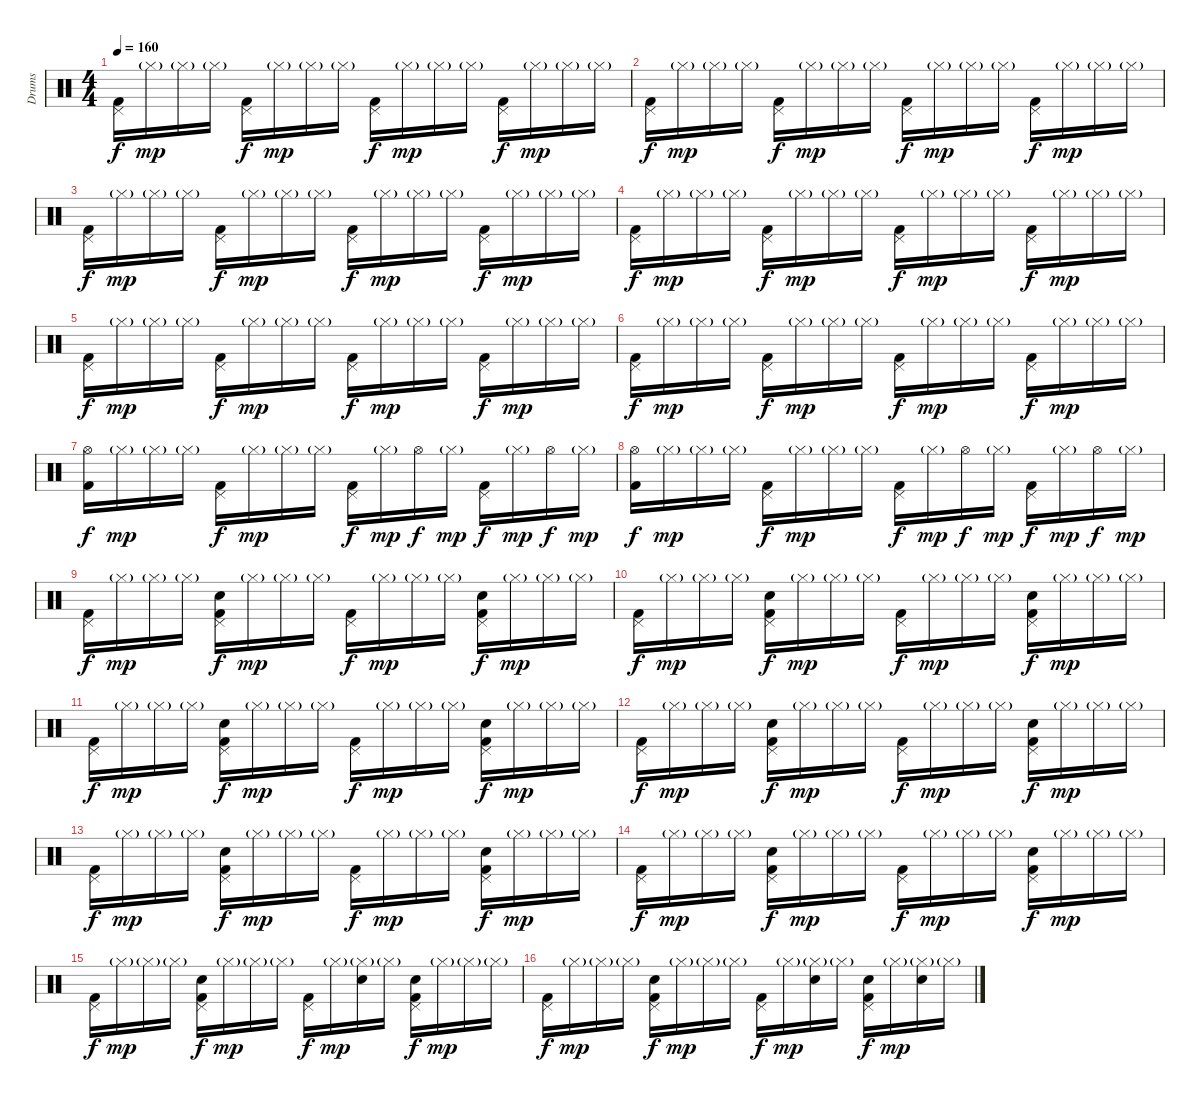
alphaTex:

\track ("Drums" "Drums") {instrument percussion}
\staff {score}
\articulation defaults
\ts (4 4)
\tempo 160
\clef neutral
\ks c
("Pedal Hi-Hat (hit)" "Kick (hit) 2").16{dy f volume 9} "Hi-Hat (closed)"{g}.16{dy mp} "Hi-Hat (closed)"{g}.16 "Hi-Hat (closed)"{g}.16 ("Pedal Hi-Hat (hit)" "Kick (hit) 2").16{dy f} "Hi-Hat (closed)"{g}.16{dy mp} "Hi-Hat (closed)"{g}.16 "Hi-Hat (closed)"{g}.16 ("Pedal Hi-Hat (hit)" "Kick (hit) 2").16{dy f} "Hi-Hat (closed)"{g}.16{dy mp} "Hi-Hat (closed)"{g}.16 "Hi-Hat (closed)"{g}.16 ("Pedal Hi-Hat (hit)" "Kick (hit) 2").16{dy f} "Hi-Hat (closed)"{g}.16{dy mp} "Hi-Hat (closed)"{g}.16 "Hi-Hat (closed)"{g}.16 |
("Pedal Hi-Hat (hit)" "Kick (hit) 2").16{dy f} "Hi-Hat (closed)"{g}.16{dy mp} "Hi-Hat (closed)"{g}.16 "Hi-Hat (closed)"{g}.16 ("Pedal Hi-Hat (hit)" "Kick (hit) 2").16{dy f} "Hi-Hat (closed)"{g}.16{dy mp} "Hi-Hat (closed)"{g}.16 "Hi-Hat (closed)"{g}.16 ("Pedal Hi-Hat (hit)" "Kick (hit) 2").16{dy f} "Hi-Hat (closed)"{g}.16{dy mp} "Hi-Hat (closed)"{g}.16 "Hi-Hat (closed)"{g}.16 ("Pedal Hi-Hat (hit)" "Kick (hit) 2").16{dy f} "Hi-Hat (closed)"{g}.16{dy mp} "Hi-Hat (closed)"{g}.16 "Hi-Hat (closed)"{g}.16 |
("Pedal Hi-Hat (hit)" "Kick (hit) 2").16{dy f} "Hi-Hat (closed)"{g}.16{dy mp} "Hi-Hat (closed)"{g}.16 "Hi-Hat (closed)"{g}.16 ("Pedal Hi-Hat (hit)" "Kick (hit) 2").16{dy f} "Hi-Hat (closed)"{g}.16{dy mp} "Hi-Hat (closed)"{g}.16 "Hi-Hat (closed)"{g}.16 ("Pedal Hi-Hat (hit)" "Kick (hit) 2").16{dy f} "Hi-Hat (closed)"{g}.16{dy mp} "Hi-Hat (closed)"{g}.16 "Hi-Hat (closed)"{g}.16 ("Pedal Hi-Hat (hit)" "Kick (hit) 2").16{dy f} "Hi-Hat (closed)"{g}.16{dy mp} "Hi-Hat (closed)"{g}.16 "Hi-Hat (closed)"{g}.16 |
("Pedal Hi-Hat (hit)" "Kick (hit) 2").16{dy f} "Hi-Hat (closed)"{g}.16{dy mp} "Hi-Hat (closed)"{g}.16 "Hi-Hat (closed)"{g}.16 ("Pedal Hi-Hat (hit)" "Kick (hit) 2").16{dy f} "Hi-Hat (closed)"{g}.16{dy mp} "Hi-Hat (closed)"{g}.16 "Hi-Hat (closed)"{g}.16 ("Pedal Hi-Hat (hit)" "Kick (hit) 2").16{dy f} "Hi-Hat (closed)"{g}.16{dy mp} "Hi-Hat (closed)"{g}.16 "Hi-Hat (closed)"{g}.16 ("Pedal Hi-Hat (hit)" "Kick (hit) 2").16{dy f} "Hi-Hat (closed)"{g}.16{dy mp} "Hi-Hat (closed)"{g}.16 "Hi-Hat (closed)"{g}.16 |
("Pedal Hi-Hat (hit)" "Kick (hit) 2").16{dy f} "Hi-Hat (closed)"{g}.16{dy mp} "Hi-Hat (closed)"{g}.16 "Hi-Hat (closed)"{g}.16 ("Pedal Hi-Hat (hit)" "Kick (hit) 2").16{dy f} "Hi-Hat (closed)"{g}.16{dy mp} "Hi-Hat (closed)"{g}.16 "Hi-Hat (closed)"{g}.16 ("Pedal Hi-Hat (hit)" "Kick (hit) 2").16{dy f} "Hi-Hat (closed)"{g}.16{dy mp} "Hi-Hat (closed)"{g}.16 "Hi-Hat (closed)"{g}.16 ("Pedal Hi-Hat (hit)" "Kick (hit) 2").16{dy f} "Hi-Hat (closed)"{g}.16{dy mp} "Hi-Hat (closed)"{g}.16 "Hi-Hat (closed)"{g}.16 |
("Pedal Hi-Hat (hit)" "Kick (hit) 2").16{dy f} "Hi-Hat (closed)"{g}.16{dy mp} "Hi-Hat (closed)"{g}.16 "Hi-Hat (closed)"{g}.16 ("Pedal Hi-Hat (hit)" "Kick (hit) 2").16{dy f} "Hi-Hat (closed)"{g}.16{dy mp} "Hi-Hat (closed)"{g}.16 "Hi-Hat (closed)"{g}.16 ("Pedal Hi-Hat (hit)" "Kick (hit) 2").16{dy f} "Hi-Hat (closed)"{g}.16{dy mp} "Hi-Hat (closed)"{g}.16 "Hi-Hat (closed)"{g}.16 ("Pedal Hi-Hat (hit)" "Kick (hit) 2").16{dy f} "Hi-Hat (closed)"{g}.16{dy mp} "Hi-Hat (closed)"{g}.16 "Hi-Hat (closed)"{g}.16 |
("Hi-Hat (open)" "Kick (hit) 2").16{dy f} "Hi-Hat (closed)"{g}.16{dy mp} "Hi-Hat (closed)"{g}.16 "Hi-Hat (closed)"{g}.16 ("Pedal Hi-Hat (hit)" "Kick (hit) 2").16{dy f} "Hi-Hat (closed)"{g}.16{dy mp} "Hi-Hat (closed)"{g}.16 "Hi-Hat (closed)"{g}.16 ("Pedal Hi-Hat (hit)" "Kick (hit) 2").16{dy f} "Hi-Hat (closed)"{g}.16{dy mp} "Hi-Hat (open)".16{dy f} "Hi-Hat (closed)"{g}.16{dy mp} ("Pedal Hi-Hat (hit)" "Kick (hit) 2").16{dy f} "Hi-Hat (closed)"{g}.16{dy mp} "Hi-Hat (open)".16{dy f} "Hi-Hat (closed)"{g}.16{dy mp} |
("Hi-Hat (open)" "Kick (hit) 2").16{dy f} "Hi-Hat (closed)"{g}.16{dy mp} "Hi-Hat (closed)"{g}.16 "Hi-Hat (closed)"{g}.16 ("Pedal Hi-Hat (hit)" "Kick (hit) 2").16{dy f} "Hi-Hat (closed)"{g}.16{dy mp} "Hi-Hat (closed)"{g}.16 "Hi-Hat (closed)"{g}.16 ("Pedal Hi-Hat (hit)" "Kick (hit) 2").16{dy f} "Hi-Hat (closed)"{g}.16{dy mp} "Hi-Hat (open)".16{dy f} "Hi-Hat (closed)"{g}.16{dy mp} ("Pedal Hi-Hat (hit)" "Kick (hit) 2").16{dy f} "Hi-Hat (closed)"{g}.16{dy mp} "Hi-Hat (open)".16{dy f} "Hi-Hat (closed)"{g}.16{dy mp} |
("Pedal Hi-Hat (hit)" "Kick (hit) 2").16{dy f} "Hi-Hat (closed)"{g}.16{dy mp} "Hi-Hat (closed)"{g}.16 "Hi-Hat (closed)"{g}.16 ("Pedal Hi-Hat (hit)" "Electric Snare (hit)" "Kick (hit) 2").16{dy f} "Hi-Hat (closed)"{g}.16{dy mp} "Hi-Hat (closed)"{g}.16 "Hi-Hat (closed)"{g}.16 ("Pedal Hi-Hat (hit)" "Kick (hit) 2").16{dy f} "Hi-Hat (closed)"{g}.16{dy mp} "Hi-Hat (closed)"{g}.16 "Hi-Hat (closed)"{g}.16 ("Pedal Hi-Hat (hit)" "Electric Snare (hit)" "Kick (hit) 2").16{dy f} "Hi-Hat (closed)"{g}.16{dy mp} "Hi-Hat (closed)"{g}.16 "Hi-Hat (closed)"{g}.16 |
("Pedal Hi-Hat (hit)" "Kick (hit) 2").16{dy f} "Hi-Hat (closed)"{g}.16{dy mp} "Hi-Hat (closed)"{g}.16 "Hi-Hat (closed)"{g}.16 ("Pedal Hi-Hat (hit)" "Electric Snare (hit)" "Kick (hit) 2").16{dy f} "Hi-Hat (closed)"{g}.16{dy mp} "Hi-Hat (closed)"{g}.16 "Hi-Hat (closed)"{g}.16 ("Pedal Hi-Hat (hit)" "Kick (hit) 2").16{dy f} "Hi-Hat (closed)"{g}.16{dy mp} "Hi-Hat (closed)"{g}.16 "Hi-Hat (closed)"{g}.16 ("Pedal Hi-Hat (hit)" "Electric Snare (hit)" "Kick (hit) 2").16{dy f} "Hi-Hat (closed)"{g}.16{dy mp} "Hi-Hat (closed)"{g}.16 "Hi-Hat (closed)"{g}.16 |
("Pedal Hi-Hat (hit)" "Kick (hit) 2").16{dy f} "Hi-Hat (closed)"{g}.16{dy mp} "Hi-Hat (closed)"{g}.16 "Hi-Hat (closed)"{g}.16 ("Pedal Hi-Hat (hit)" "Electric Snare (hit)" "Kick (hit) 2").16{dy f} "Hi-Hat (closed)"{g}.16{dy mp} "Hi-Hat (closed)"{g}.16 "Hi-Hat (closed)"{g}.16 ("Pedal Hi-Hat (hit)" "Kick (hit) 2").16{dy f} "Hi-Hat (closed)"{g}.16{dy mp} "Hi-Hat (closed)"{g}.16 "Hi-Hat (closed)"{g}.16 ("Pedal Hi-Hat (hit)" "Electric Snare (hit)" "Kick (hit) 2").16{dy f} "Hi-Hat (closed)"{g}.16{dy mp} "Hi-Hat (closed)"{g}.16 "Hi-Hat (closed)"{g}.16 |
("Pedal Hi-Hat (hit)" "Kick (hit) 2").16{dy f} "Hi-Hat (closed)"{g}.16{dy mp} "Hi-Hat (closed)"{g}.16 "Hi-Hat (closed)"{g}.16 ("Pedal Hi-Hat (hit)" "Electric Snare (hit)" "Kick (hit) 2").16{dy f} "Hi-Hat (closed)"{g}.16{dy mp} "Hi-Hat (closed)"{g}.16 "Hi-Hat (closed)"{g}.16 ("Pedal Hi-Hat (hit)" "Kick (hit) 2").16{dy f} "Hi-Hat (closed)"{g}.16{dy mp} "Hi-Hat (closed)"{g}.16 "Hi-Hat (closed)"{g}.16 ("Pedal Hi-Hat (hit)" "Electric Snare (hit)" "Kick (hit) 2").16{dy f} "Hi-Hat (closed)"{g}.16{dy mp} "Hi-Hat (closed)"{g}.16 "Hi-Hat (closed)"{g}.16 |
("Pedal Hi-Hat (hit)" "Kick (hit) 2").16{dy f} "Hi-Hat (closed)"{g}.16{dy mp} "Hi-Hat (closed)"{g}.16 "Hi-Hat (closed)"{g}.16 ("Pedal Hi-Hat (hit)" "Electric Snare (hit)" "Kick (hit) 2").16{dy f} "Hi-Hat (closed)"{g}.16{dy mp} "Hi-Hat (closed)"{g}.16 "Hi-Hat (closed)"{g}.16 ("Pedal Hi-Hat (hit)" "Kick (hit) 2").16{dy f} "Hi-Hat (closed)"{g}.16{dy mp} "Hi-Hat (closed)"{g}.16 "Hi-Hat (closed)"{g}.16 ("Pedal Hi-Hat (hit)" "Electric Snare (hit)" "Kick (hit) 2").16{dy f} "Hi-Hat (closed)"{g}.16{dy mp} "Hi-Hat (closed)"{g}.16 "Hi-Hat (closed)"{g}.16 |
("Pedal Hi-Hat (hit)" "Kick (hit) 2").16{dy f} "Hi-Hat (closed)"{g}.16{dy mp} "Hi-Hat (closed)"{g}.16 "Hi-Hat (closed)"{g}.16 ("Pedal Hi-Hat (hit)" "Electric Snare (hit)" "Kick (hit) 2").16{dy f} "Hi-Hat (closed)"{g}.16{dy mp} "Hi-Hat (closed)"{g}.16 "Hi-Hat (closed)"{g}.16 ("Pedal Hi-Hat (hit)" "Kick (hit) 2").16{dy f} "Hi-Hat (closed)"{g}.16{dy mp} "Hi-Hat (closed)"{g}.16 "Hi-Hat (closed)"{g}.16 ("Pedal Hi-Hat (hit)" "Electric Snare (hit)" "Kick (hit) 2").16{dy f} "Hi-Hat (closed)"{g}.16{dy mp} "Hi-Hat (closed)"{g}.16 "Hi-Hat (closed)"{g}.16 |
("Pedal Hi-Hat (hit)" "Kick (hit) 2").16{dy f} "Hi-Hat (closed)"{g}.16{dy mp} "Hi-Hat (closed)"{g}.16 "Hi-Hat (closed)"{g}.16 ("Pedal Hi-Hat (hit)" "Electric Snare (hit)" "Kick (hit) 2").16{dy f} "Hi-Hat (closed)"{g}.16{dy mp} "Hi-Hat (closed)"{g}.16 "Hi-Hat (closed)"{g}.16 ("Pedal Hi-Hat (hit)" "Kick (hit) 2").16{dy f} "Hi-Hat (closed)"{g}.16{dy mp} ("Hi-Hat (closed)"{g} "Electric Snare (hit)").16 "Hi-Hat (closed)"{g}.16 ("Pedal Hi-Hat (hit)" "Electric Snare (hit)" "Kick (hit) 2").16{dy f} "Hi-Hat (closed)"{g}.16{dy mp} "Hi-Hat (closed)"{g}.16 "Hi-Hat (closed)"{g}.16 |
("Pedal Hi-Hat (hit)" "Kick (hit) 2").16{dy f} "Hi-Hat (closed)"{g}.16{dy mp} "Hi-Hat (closed)"{g}.16 "Hi-Hat (closed)"{g}.16 ("Pedal Hi-Hat (hit)" "Electric Snare (hit)" "Kick (hit) 2").16{dy f} "Hi-Hat (closed)"{g}.16{dy mp} "Hi-Hat (closed)"{g}.16 "Hi-Hat (closed)"{g}.16 ("Pedal Hi-Hat (hit)" "Kick (hit) 2").16{dy f} "Hi-Hat (closed)"{g}.16{dy mp} ("Hi-Hat (closed)"{g} "Electric Snare (hit)").16 "Hi-Hat (closed)"{g}.16 ("Pedal Hi-Hat (hit)" "Electric Snare (hit)" "Kick (hit) 2").16{dy f} "Hi-Hat (closed)"{g}.16{dy mp} ("Hi-Hat (closed)"{g} "Electric Snare (hit)").16 "Hi-Hat (closed)"{g}.16
